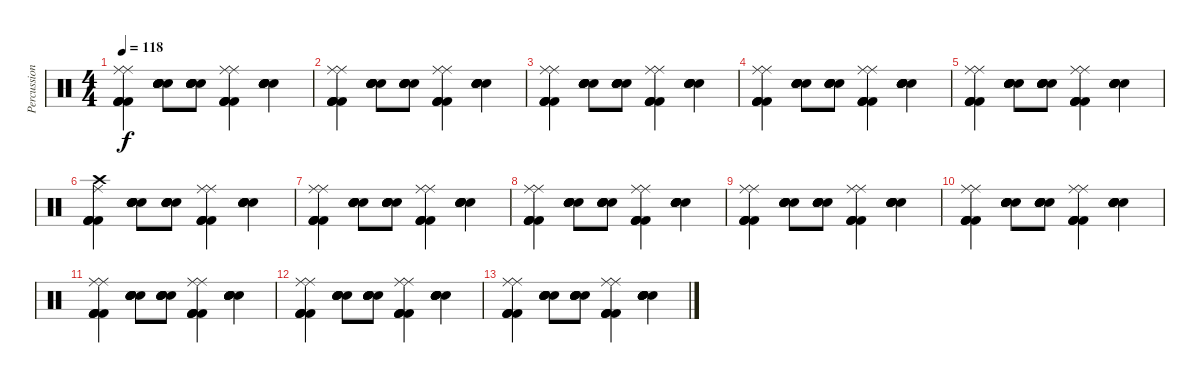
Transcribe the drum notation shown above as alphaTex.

\track ("Percussion" "Percussion") {instrument percussion}
\staff {score}
\articulation defaults
\ts (4 4)
\tempo 118
\clef neutral
\ks c
("Ride (middle)" "Kick (hit) 2" "Kick (hit) 2" "Kick (hit) 2" "Kick (hit) 2" "Ride (middle)").4{dy f} ("Electric Snare (hit)" "Electric Snare (hit)" "Electric Snare (hit)" "Electric Snare (hit)" "Electric Snare (hit)" "Electric Snare (hit)").8 ("Electric Snare (hit)" "Electric Snare (hit)" "Electric Snare (hit)" "Electric Snare (hit)" "Electric Snare (hit)" "Electric Snare (hit)").8 ("Ride (middle)" "Kick (hit) 2" "Kick (hit) 2" "Kick (hit) 2" "Kick (hit) 2" "Ride (middle)").4 ("Electric Snare (hit)" "Electric Snare (hit)" "Electric Snare (hit)" "Electric Snare (hit)" "Electric Snare (hit)" "Electric Snare (hit)").4 |
("Ride (middle)" "Kick (hit) 2" "Kick (hit) 2" "Kick (hit) 2" "Kick (hit) 2" "Ride (middle)").4 ("Electric Snare (hit)" "Electric Snare (hit)" "Electric Snare (hit)" "Electric Snare (hit)" "Electric Snare (hit)" "Electric Snare (hit)").8 ("Electric Snare (hit)" "Electric Snare (hit)" "Electric Snare (hit)" "Electric Snare (hit)" "Electric Snare (hit)" "Electric Snare (hit)").8 ("Ride (middle)" "Kick (hit) 2" "Kick (hit) 2" "Kick (hit) 2" "Kick (hit) 2" "Ride (middle)").4 ("Electric Snare (hit)" "Electric Snare (hit)" "Electric Snare (hit)" "Electric Snare (hit)" "Electric Snare (hit)" "Electric Snare (hit)").4 |
("Ride (middle)" "Kick (hit) 2" "Kick (hit) 2" "Kick (hit) 2" "Kick (hit) 2" "Ride (middle)").4 ("Electric Snare (hit)" "Electric Snare (hit)" "Electric Snare (hit)" "Electric Snare (hit)" "Electric Snare (hit)" "Electric Snare (hit)").8 ("Electric Snare (hit)" "Electric Snare (hit)" "Electric Snare (hit)" "Electric Snare (hit)" "Electric Snare (hit)" "Electric Snare (hit)").8 ("Ride (middle)" "Kick (hit) 2" "Kick (hit) 2" "Kick (hit) 2" "Kick (hit) 2" "Ride (middle)").4 ("Electric Snare (hit)" "Electric Snare (hit)" "Electric Snare (hit)" "Electric Snare (hit)" "Electric Snare (hit)" "Electric Snare (hit)").4 |
("Ride (middle)" "Kick (hit) 2" "Kick (hit) 2" "Kick (hit) 2" "Kick (hit) 2" "Ride (middle)").4 ("Electric Snare (hit)" "Electric Snare (hit)" "Electric Snare (hit)" "Electric Snare (hit)" "Electric Snare (hit)" "Electric Snare (hit)").8 ("Electric Snare (hit)" "Electric Snare (hit)" "Electric Snare (hit)" "Electric Snare (hit)" "Electric Snare (hit)" "Electric Snare (hit)").8 ("Ride (middle)" "Kick (hit) 2" "Kick (hit) 2" "Kick (hit) 2" "Kick (hit) 2" "Ride (middle)").4 ("Electric Snare (hit)" "Electric Snare (hit)" "Electric Snare (hit)" "Electric Snare (hit)" "Electric Snare (hit)" "Electric Snare (hit)").4 |
("Ride (middle)" "Kick (hit) 2" "Kick (hit) 2" "Kick (hit) 2" "Kick (hit) 2" "Ride (middle)").4 ("Electric Snare (hit)" "Electric Snare (hit)" "Electric Snare (hit)" "Electric Snare (hit)" "Electric Snare (hit)" "Electric Snare (hit)").8 ("Electric Snare (hit)" "Electric Snare (hit)" "Electric Snare (hit)" "Electric Snare (hit)" "Electric Snare (hit)" "Electric Snare (hit)").8 ("Ride (middle)" "Kick (hit) 2" "Kick (hit) 2" "Kick (hit) 2" "Kick (hit) 2" "Ride (middle)").4 ("Electric Snare (hit)" "Electric Snare (hit)" "Electric Snare (hit)" "Electric Snare (hit)" "Electric Snare (hit)" "Electric Snare (hit)").4 |
("Crash high (hit)" "Kick (hit) 2" "Kick (hit) 2" "Kick (hit) 2" "Kick (hit) 2" "Ride (middle)").4 ("Electric Snare (hit)" "Electric Snare (hit)" "Electric Snare (hit)" "Electric Snare (hit)" "Electric Snare (hit)" "Electric Snare (hit)").8 ("Electric Snare (hit)" "Electric Snare (hit)" "Electric Snare (hit)" "Electric Snare (hit)" "Electric Snare (hit)" "Electric Snare (hit)").8 ("Ride (middle)" "Kick (hit) 2" "Kick (hit) 2" "Kick (hit) 2" "Kick (hit) 2" "Ride (middle)").4 ("Electric Snare (hit)" "Electric Snare (hit)" "Electric Snare (hit)" "Electric Snare (hit)" "Electric Snare (hit)" "Electric Snare (hit)").4 |
("Ride (middle)" "Kick (hit) 2" "Kick (hit) 2" "Kick (hit) 2" "Kick (hit) 2" "Ride (middle)").4 ("Electric Snare (hit)" "Electric Snare (hit)" "Electric Snare (hit)" "Electric Snare (hit)" "Electric Snare (hit)" "Electric Snare (hit)").8 ("Electric Snare (hit)" "Electric Snare (hit)" "Electric Snare (hit)" "Electric Snare (hit)" "Electric Snare (hit)" "Electric Snare (hit)").8 ("Ride (middle)" "Kick (hit) 2" "Kick (hit) 2" "Kick (hit) 2" "Kick (hit) 2" "Ride (middle)").4 ("Electric Snare (hit)" "Electric Snare (hit)" "Electric Snare (hit)" "Electric Snare (hit)" "Electric Snare (hit)" "Electric Snare (hit)").4 |
("Ride (middle)" "Kick (hit) 2" "Kick (hit) 2" "Kick (hit) 2" "Kick (hit) 2" "Ride (middle)").4 ("Electric Snare (hit)" "Electric Snare (hit)" "Electric Snare (hit)" "Electric Snare (hit)" "Electric Snare (hit)" "Electric Snare (hit)").8 ("Electric Snare (hit)" "Electric Snare (hit)" "Electric Snare (hit)" "Electric Snare (hit)" "Electric Snare (hit)" "Electric Snare (hit)").8 ("Ride (middle)" "Kick (hit) 2" "Kick (hit) 2" "Kick (hit) 2" "Kick (hit) 2" "Ride (middle)").4 ("Electric Snare (hit)" "Electric Snare (hit)" "Electric Snare (hit)" "Electric Snare (hit)" "Electric Snare (hit)" "Electric Snare (hit)").4 |
("Ride (middle)" "Kick (hit) 2" "Kick (hit) 2" "Kick (hit) 2" "Kick (hit) 2" "Ride (middle)").4 ("Electric Snare (hit)" "Electric Snare (hit)" "Electric Snare (hit)" "Electric Snare (hit)" "Electric Snare (hit)" "Electric Snare (hit)").8 ("Electric Snare (hit)" "Electric Snare (hit)" "Electric Snare (hit)" "Electric Snare (hit)" "Electric Snare (hit)" "Electric Snare (hit)").8 ("Ride (middle)" "Kick (hit) 2" "Kick (hit) 2" "Kick (hit) 2" "Kick (hit) 2" "Ride (middle)").4 ("Electric Snare (hit)" "Electric Snare (hit)" "Electric Snare (hit)" "Electric Snare (hit)" "Electric Snare (hit)" "Electric Snare (hit)").4 |
("Ride (middle)" "Kick (hit) 2" "Kick (hit) 2" "Kick (hit) 2" "Kick (hit) 2" "Ride (middle)").4 ("Electric Snare (hit)" "Electric Snare (hit)" "Electric Snare (hit)" "Electric Snare (hit)" "Electric Snare (hit)" "Electric Snare (hit)").8 ("Electric Snare (hit)" "Electric Snare (hit)" "Electric Snare (hit)" "Electric Snare (hit)" "Electric Snare (hit)" "Electric Snare (hit)").8 ("Ride (middle)" "Kick (hit) 2" "Kick (hit) 2" "Kick (hit) 2" "Kick (hit) 2" "Ride (middle)").4 ("Electric Snare (hit)" "Electric Snare (hit)" "Electric Snare (hit)" "Electric Snare (hit)" "Electric Snare (hit)" "Electric Snare (hit)").4 |
("Ride (middle)" "Kick (hit) 2" "Kick (hit) 2" "Kick (hit) 2" "Kick (hit) 2" "Ride (middle)").4 ("Electric Snare (hit)" "Electric Snare (hit)" "Electric Snare (hit)" "Electric Snare (hit)" "Electric Snare (hit)" "Electric Snare (hit)").8 ("Electric Snare (hit)" "Electric Snare (hit)" "Electric Snare (hit)" "Electric Snare (hit)" "Electric Snare (hit)" "Electric Snare (hit)").8 ("Ride (middle)" "Kick (hit) 2" "Kick (hit) 2" "Kick (hit) 2" "Kick (hit) 2" "Ride (middle)").4 ("Electric Snare (hit)" "Electric Snare (hit)" "Electric Snare (hit)" "Electric Snare (hit)" "Electric Snare (hit)" "Electric Snare (hit)").4 |
("Ride (middle)" "Kick (hit) 2" "Kick (hit) 2" "Kick (hit) 2" "Kick (hit) 2" "Ride (middle)").4 ("Electric Snare (hit)" "Electric Snare (hit)" "Electric Snare (hit)" "Electric Snare (hit)" "Electric Snare (hit)" "Electric Snare (hit)").8 ("Electric Snare (hit)" "Electric Snare (hit)" "Electric Snare (hit)" "Electric Snare (hit)" "Electric Snare (hit)" "Electric Snare (hit)").8 ("Ride (middle)" "Kick (hit) 2" "Kick (hit) 2" "Kick (hit) 2" "Kick (hit) 2" "Ride (middle)").4 ("Electric Snare (hit)" "Electric Snare (hit)" "Electric Snare (hit)" "Electric Snare (hit)" "Electric Snare (hit)" "Electric Snare (hit)").4 |
("Ride (middle)" "Kick (hit) 2" "Kick (hit) 2" "Kick (hit) 2" "Kick (hit) 2" "Ride (middle)").4 ("Electric Snare (hit)" "Electric Snare (hit)" "Electric Snare (hit)" "Electric Snare (hit)" "Electric Snare (hit)" "Electric Snare (hit)").8 ("Electric Snare (hit)" "Electric Snare (hit)" "Electric Snare (hit)" "Electric Snare (hit)" "Electric Snare (hit)" "Electric Snare (hit)").8 ("Ride (middle)" "Kick (hit) 2" "Kick (hit) 2" "Kick (hit) 2" "Kick (hit) 2" "Ride (middle)").4 ("Electric Snare (hit)" "Electric Snare (hit)" "Electric Snare (hit)" "Electric Snare (hit)" "Electric Snare (hit)" "Electric Snare (hit)").4
